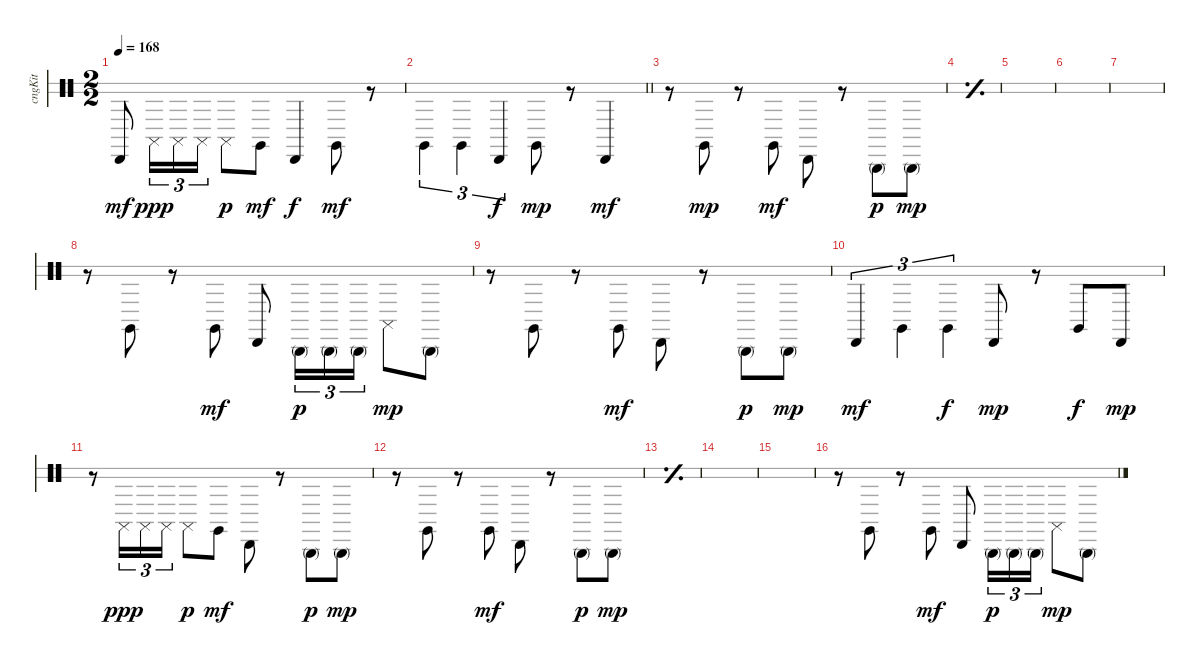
\bracketExtendMode groupsimilarinstruments
\multiTrackTrackNamePolicy hidden
\otherSystemsTrackNameOrientation horizontal
\track ("Congas" "cngKit") {instrument percussion}
\staff {score 2}
\articulation defaults
\ts (2 2)
\tempo 168
\clef neutral
\ks c "Conga low (hit)".8{dy mf beam Up} "Conga high (slap)".16{tu (3 2) dy ppp beam Down} "Conga high (slap)".16{tu (3 2) beam Down} "Conga high (slap)".16{tu (3 2) beam Down} "Conga high (slap)".8{dy p beam Down} "Conga high (hit)".8{dy mf beam Down} "Conga low (hit)".4{dy f beam Up} "Conga high (hit)".8{dy mf beam Down}
r.8{beam Down} |
\barLineRight lightlight "Conga high (hit)".4{tu (3 2) beam Down} "Conga high (hit)".4{tu (3 2) beam Down} "Conga low (hit)".4{tu (3 2) dy f beam Up} "Conga high (hit)".8{dy mp beam Down}
r.8{beam Down} "Conga low (hit)".4{dy mf beam Up} |
r.8{beam Down} "Conga high (hit)".8{dy mp beam Down} r.8{beam Down} "Conga high (hit)".8{dy mf beam Down} "Conga low (hit)".8{beam Down} r.8{beam Down} "Conga high (mute)".8{dy p beam Down} "Conga high (mute)".8{dy mp beam Down} |
\simile simple
|
|
|
|
\simile none
r.8{beam Down} "Conga high (hit)".8{beam Down} r.8{beam Down} "Conga high (hit)".8{dy mf beam Down} "Conga low (hit)".8{beam Up} "Conga high (mute)".16{tu (3 2) dy p beam Down} "Conga high (mute)".16{tu (3 2) beam Down} "Conga high (mute)".16{tu (3 2) beam Down} "Conga high (slap)".8{dy mp beam Down} "Conga high (mute)".8{beam Down} |
r.8{beam Down} "Conga high (hit)".8{beam Down} r.8{beam Down} "Conga high (hit)".8{dy mf beam Down} "Conga low (hit)".8{beam Down} r.8{beam Down} "Conga high (mute)".8{dy p beam Down} "Conga high (mute)".8{dy mp beam Down} |
"Conga low (hit)".4{tu (3 2) dy mf beam Up} "Conga high (hit)".4{tu (3 2) beam Down} "Conga high (hit)".4{tu (3 2) dy f beam Down} "Conga low (hit)".8{dy mp beam Up} r.8{beam Up} "Conga high (hit)".8{dy f beam Up} "Conga low (hit)".8{dy mp beam Up} |
r.8{beam Down} "Conga high (slap)".16{tu (3 2) dy ppp beam Down} "Conga high (slap)".16{tu (3 2) beam Down} "Conga high (slap)".16{tu (3 2) beam Down} "Conga high (slap)".8{dy p beam Down} "Conga high (hit)".8{dy mf beam Down} "Conga low (hit)".8{beam Down} r.8{beam Down} "Conga high (mute)".8{dy p beam Down} "Conga high (mute)".8{dy mp beam Down} |
r.8{beam Down} "Conga high (hit)".8{beam Down} r.8{beam Down} "Conga high (hit)".8{dy mf beam Down} "Conga low (hit)".8{beam Down} r.8{beam Down} "Conga high (mute)".8{dy p beam Down} "Conga high (mute)".8{dy mp beam Down} |
\simile simple
|
|
|
\simile none
r.8{beam Down} "Conga high (hit)".8{beam Down} r.8{beam Down} "Conga high (hit)".8{dy mf beam Down} "Conga low (hit)".8{beam Up} "Conga high (mute)".16{tu (3 2) dy p beam Down} "Conga high (mute)".16{tu (3 2) beam Down} "Conga high (mute)".16{tu (3 2) beam Down} "Conga high (slap)".8{dy mp beam Down} "Conga high (mute)".8{beam Down}
